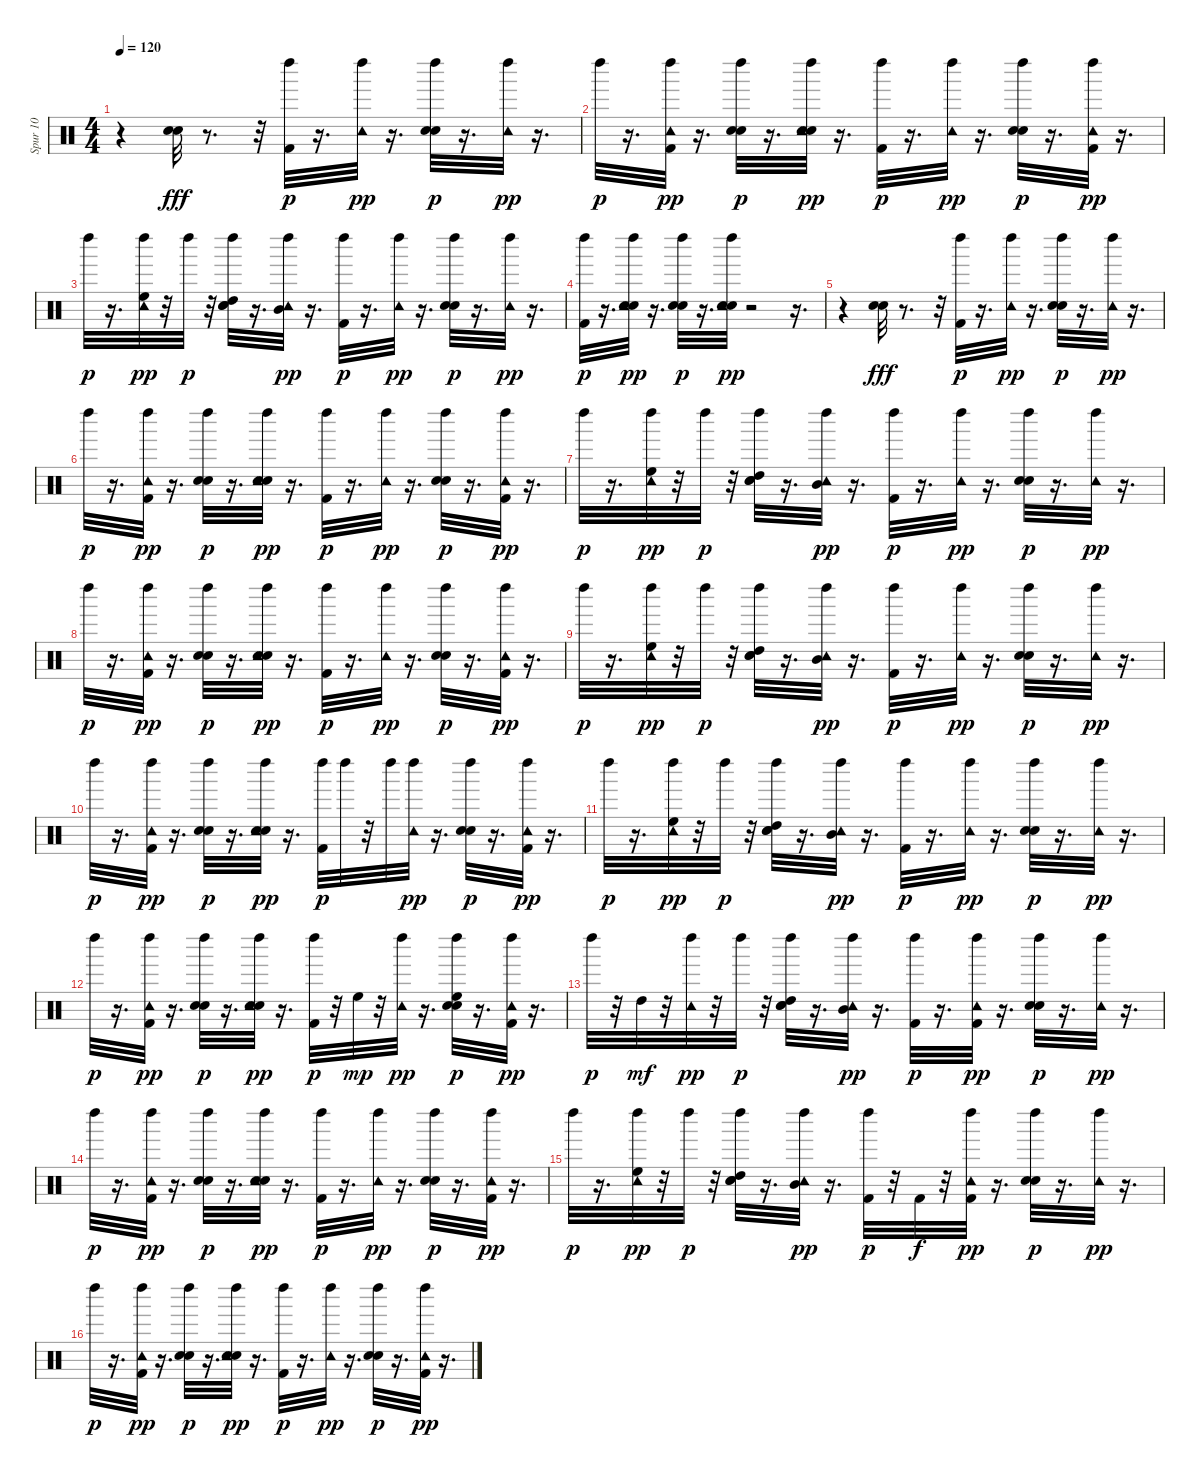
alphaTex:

\track ("Spur 10" "Spur 10") {instrument percussion}
\staff {score}
\articulation defaults
\ts (4 4)
\tempo 120
\clef neutral
\ks c
r.4{dy pp} ("Hand Clap (hit)" "Electric Snare (hit)").32{dy fff} r.8{d} r.32 ("Kick (hit) 2" "Left Maraca (hit)").32{dy p} r.16{d} ("Tambourine (hit)" "Left Maraca (hit)").32{dy pp} r.16{d} ("Hand Clap (hit)" "Electric Snare (hit)" "Left Maraca (hit)").32{dy p} r.16{d} ("Tambourine (hit)" "Left Maraca (hit)").32{dy pp} r.16{d} |
"Left Maraca (hit)".32{dy p} r.16{d} ("Kick (hit) 2" "Tambourine (hit)" "Left Maraca (hit)").32{dy pp} r.16{d} ("Hand Clap (hit)" "Electric Snare (hit)" "Left Maraca (hit)").32{dy p} r.16{d} ("Hand Clap (hit)" "Electric Snare (hit)" "Tambourine (hit)" "Left Maraca (hit)").32{dy pp} r.16{d} ("Kick (hit) 2" "Left Maraca (hit)").32{dy p} r.16{d} ("Tambourine (hit)" "Left Maraca (hit)").32{dy pp} r.16{d} ("Hand Clap (hit)" "Electric Snare (hit)" "Left Maraca (hit)").32{dy p} r.16{d} ("Kick (hit) 2" "Tambourine (hit)" "Left Maraca (hit)").32{dy pp} r.16{d} |
"Left Maraca (hit)".32{dy p} r.16{d} ("High Floor Tom (hit)" "Tambourine (hit)" "Left Maraca (hit)").32{dy pp} r.32 "Left Maraca (hit)".32{dy p} r.32 ("Hand Clap (hit)" "Electric Snare (hit)" "High Tom (hit)" "Left Maraca (hit)").32 r.16{d} ("Mid Tom (hit)" "Tambourine (hit)" "Left Maraca (hit)").32{dy pp} r.16{d} ("Kick (hit) 2" "Left Maraca (hit)").32{dy p} r.16{d} ("Tambourine (hit)" "Left Maraca (hit)").32{dy pp} r.16{d} ("Hand Clap (hit)" "Electric Snare (hit)" "Left Maraca (hit)").32{dy p} r.16{d} ("Tambourine (hit)" "Left Maraca (hit)").32{dy pp} r.16{d} |
("Kick (hit) 2" "Left Maraca (hit)").32{dy p} r.16{d} ("Hand Clap (hit)" "Electric Snare (hit)" "Tambourine (hit)" "Left Maraca (hit)").32{dy pp} r.16{d} ("Hand Clap (hit)" "Electric Snare (hit)" "Left Maraca (hit)").32{dy p} r.16{d} ("Hand Clap (hit)" "Electric Snare (hit)" "Tambourine (hit)" "Left Maraca (hit)").32{dy pp} r.2 r.16{d} |
r.4 ("Hand Clap (hit)" "Electric Snare (hit)").32{dy fff} r.8{d} r.32 ("Kick (hit) 2" "Left Maraca (hit)").32{dy p} r.16{d} ("Tambourine (hit)" "Left Maraca (hit)").32{dy pp} r.16{d} ("Hand Clap (hit)" "Electric Snare (hit)" "Left Maraca (hit)").32{dy p} r.16{d} ("Tambourine (hit)" "Left Maraca (hit)").32{dy pp} r.16{d} |
"Left Maraca (hit)".32{dy p} r.16{d} ("Kick (hit) 2" "Tambourine (hit)" "Left Maraca (hit)").32{dy pp} r.16{d} ("Hand Clap (hit)" "Electric Snare (hit)" "Left Maraca (hit)").32{dy p} r.16{d} ("Hand Clap (hit)" "Electric Snare (hit)" "Tambourine (hit)" "Left Maraca (hit)").32{dy pp} r.16{d} ("Kick (hit) 2" "Left Maraca (hit)").32{dy p} r.16{d} ("Tambourine (hit)" "Left Maraca (hit)").32{dy pp} r.16{d} ("Hand Clap (hit)" "Electric Snare (hit)" "Left Maraca (hit)").32{dy p} r.16{d} ("Kick (hit) 2" "Tambourine (hit)" "Left Maraca (hit)").32{dy pp} r.16{d} |
"Left Maraca (hit)".32{dy p} r.16{d} ("High Floor Tom (hit)" "Tambourine (hit)" "Left Maraca (hit)").32{dy pp} r.32 "Left Maraca (hit)".32{dy p} r.32 ("Hand Clap (hit)" "Electric Snare (hit)" "High Tom (hit)" "Left Maraca (hit)").32 r.16{d} ("Mid Tom (hit)" "Tambourine (hit)" "Left Maraca (hit)").32{dy pp} r.16{d} ("Kick (hit) 2" "Left Maraca (hit)").32{dy p} r.16{d} ("Tambourine (hit)" "Left Maraca (hit)").32{dy pp} r.16{d} ("Hand Clap (hit)" "Electric Snare (hit)" "Left Maraca (hit)").32{dy p} r.16{d} ("Tambourine (hit)" "Left Maraca (hit)").32{dy pp} r.16{d} |
"Left Maraca (hit)".32{dy p} r.16{d} ("Kick (hit) 2" "Tambourine (hit)" "Left Maraca (hit)").32{dy pp} r.16{d} ("Hand Clap (hit)" "Electric Snare (hit)" "Left Maraca (hit)").32{dy p} r.16{d} ("Hand Clap (hit)" "Electric Snare (hit)" "Tambourine (hit)" "Left Maraca (hit)").32{dy pp} r.16{d} ("Kick (hit) 2" "Left Maraca (hit)").32{dy p} r.16{d} ("Tambourine (hit)" "Left Maraca (hit)").32{dy pp} r.16{d} ("Hand Clap (hit)" "Electric Snare (hit)" "Left Maraca (hit)").32{dy p} r.16{d} ("Kick (hit) 2" "Tambourine (hit)" "Left Maraca (hit)").32{dy pp} r.16{d} |
"Left Maraca (hit)".32{dy p} r.16{d} ("High Floor Tom (hit)" "Tambourine (hit)" "Left Maraca (hit)").32{dy pp} r.32 "Left Maraca (hit)".32{dy p} r.32 ("Hand Clap (hit)" "Electric Snare (hit)" "High Tom (hit)" "Left Maraca (hit)").32 r.16{d} ("Mid Tom (hit)" "Tambourine (hit)" "Left Maraca (hit)").32{dy pp} r.16{d} ("Kick (hit) 2" "Left Maraca (hit)").32{dy p} r.16{d} ("Tambourine (hit)" "Left Maraca (hit)").32{dy pp} r.16{d} ("Hand Clap (hit)" "Electric Snare (hit)" "Left Maraca (hit)").32{dy p} r.16{d} ("Tambourine (hit)" "Left Maraca (hit)").32{dy pp} r.16{d} |
"Left Maraca (hit)".32{dy p} r.16{d} ("Kick (hit) 2" "Tambourine (hit)" "Left Maraca (hit)").32{dy pp} r.16{d} ("Hand Clap (hit)" "Electric Snare (hit)" "Left Maraca (hit)").32{dy p} r.16{d} ("Hand Clap (hit)" "Electric Snare (hit)" "Tambourine (hit)" "Left Maraca (hit)").32{dy pp} r.16{d} ("Kick (hit) 2" "Left Maraca (hit)").32{dy p} "Left Maraca (hit)".32 r.32 "Left Maraca (hit)".32 ("Tambourine (hit)" "Left Maraca (hit)").32{dy pp} r.16{d} ("Hand Clap (hit)" "Electric Snare (hit)" "Left Maraca (hit)").32{dy p} r.16{d} ("Kick (hit) 2" "Tambourine (hit)" "Left Maraca (hit)").32{dy pp} r.16{d} |
"Left Maraca (hit)".32{dy p} r.16{d} ("High Floor Tom (hit)" "Tambourine (hit)" "Left Maraca (hit)").32{dy pp} r.32 "Left Maraca (hit)".32{dy p} r.32 ("Hand Clap (hit)" "Electric Snare (hit)" "High Tom (hit)" "Left Maraca (hit)").32 r.16{d} ("Mid Tom (hit)" "Tambourine (hit)" "Left Maraca (hit)").32{dy pp} r.16{d} ("Kick (hit) 2" "Left Maraca (hit)").32{dy p} r.16{d} ("Tambourine (hit)" "Left Maraca (hit)").32{dy pp} r.16{d} ("Hand Clap (hit)" "Electric Snare (hit)" "Left Maraca (hit)").32{dy p} r.16{d} ("Tambourine (hit)" "Left Maraca (hit)").32{dy pp} r.16{d} |
"Left Maraca (hit)".32{dy p} r.16{d} ("Kick (hit) 2" "Tambourine (hit)" "Left Maraca (hit)").32{dy pp} r.16{d} ("Hand Clap (hit)" "Electric Snare (hit)" "Left Maraca (hit)").32{dy p} r.16{d} ("Hand Clap (hit)" "Electric Snare (hit)" "Tambourine (hit)" "Left Maraca (hit)").32{dy pp} r.16{d} ("Kick (hit) 2" "Left Maraca (hit)").32{dy p} r.32 "High Floor Tom (hit)".32{dy mp} r.32 ("Tambourine (hit)" "Left Maraca (hit)").32{dy pp} r.16{d} ("Hand Clap (hit)" "Electric Snare (hit)" "High Floor Tom (hit)" "Left Maraca (hit)").32{dy p} r.16{d} ("Kick (hit) 2" "Tambourine (hit)" "Left Maraca (hit)").32{dy pp} r.16{d} |
"Left Maraca (hit)".32{dy p} r.32 "High Tom (hit)".32{dy mf} r.32 ("Tambourine (hit)" "Left Maraca (hit)").32{dy pp} r.32 "Left Maraca (hit)".32{dy p} r.32 ("Hand Clap (hit)" "Electric Snare (hit)" "High Tom (hit)" "Left Maraca (hit)").32 r.16{d} ("Mid Tom (hit)" "Tambourine (hit)" "Left Maraca (hit)").32{dy pp} r.16{d} ("Kick (hit) 2" "Left Maraca (hit)").32{dy p} r.16{d} ("Kick (hit) 2" "Tambourine (hit)" "Left Maraca (hit)").32{dy pp} r.16{d} ("Hand Clap (hit)" "Electric Snare (hit)" "Left Maraca (hit)").32{dy p} r.16{d} ("Tambourine (hit)" "Left Maraca (hit)").32{dy pp} r.16{d} |
"Left Maraca (hit)".32{dy p} r.16{d} ("Kick (hit) 2" "Tambourine (hit)" "Left Maraca (hit)").32{dy pp} r.16{d} ("Hand Clap (hit)" "Electric Snare (hit)" "Left Maraca (hit)").32{dy p} r.16{d} ("Hand Clap (hit)" "Electric Snare (hit)" "Tambourine (hit)" "Left Maraca (hit)").32{dy pp} r.16{d} ("Kick (hit) 2" "Left Maraca (hit)").32{dy p} r.16{d} ("Tambourine (hit)" "Left Maraca (hit)").32{dy pp} r.16{d} ("Hand Clap (hit)" "Electric Snare (hit)" "Left Maraca (hit)").32{dy p} r.16{d} ("Kick (hit) 2" "Tambourine (hit)" "Left Maraca (hit)").32{dy pp} r.16{d} |
"Left Maraca (hit)".32{dy p} r.16{d} ("High Floor Tom (hit)" "Tambourine (hit)" "Left Maraca (hit)").32{dy pp} r.32 "Left Maraca (hit)".32{dy p} r.32 ("Hand Clap (hit)" "Electric Snare (hit)" "High Tom (hit)" "Left Maraca (hit)").32 r.16{d} ("Mid Tom (hit)" "Tambourine (hit)" "Left Maraca (hit)").32{dy pp} r.16{d} ("Kick (hit) 2" "Left Maraca (hit)").32{dy p} r.32 "Kick (hit) 2".32{dy f} r.32 ("Kick (hit) 2" "Tambourine (hit)" "Left Maraca (hit)").32{dy pp} r.16{d} ("Hand Clap (hit)" "Electric Snare (hit)" "Left Maraca (hit)").32{dy p} r.16{d} ("Tambourine (hit)" "Left Maraca (hit)").32{dy pp} r.16{d} |
"Left Maraca (hit)".32{dy p} r.16{d} ("Kick (hit) 2" "Tambourine (hit)" "Left Maraca (hit)").32{dy pp} r.16{d} ("Hand Clap (hit)" "Electric Snare (hit)" "Left Maraca (hit)").32{dy p} r.16{d} ("Hand Clap (hit)" "Electric Snare (hit)" "Tambourine (hit)" "Left Maraca (hit)").32{dy pp} r.16{d} ("Kick (hit) 2" "Left Maraca (hit)").32{dy p} r.16{d} ("Tambourine (hit)" "Left Maraca (hit)").32{dy pp} r.16{d} ("Hand Clap (hit)" "Electric Snare (hit)" "Left Maraca (hit)").32{dy p} r.16{d} ("Kick (hit) 2" "Tambourine (hit)" "Left Maraca (hit)").32{dy pp} r.16{d}
